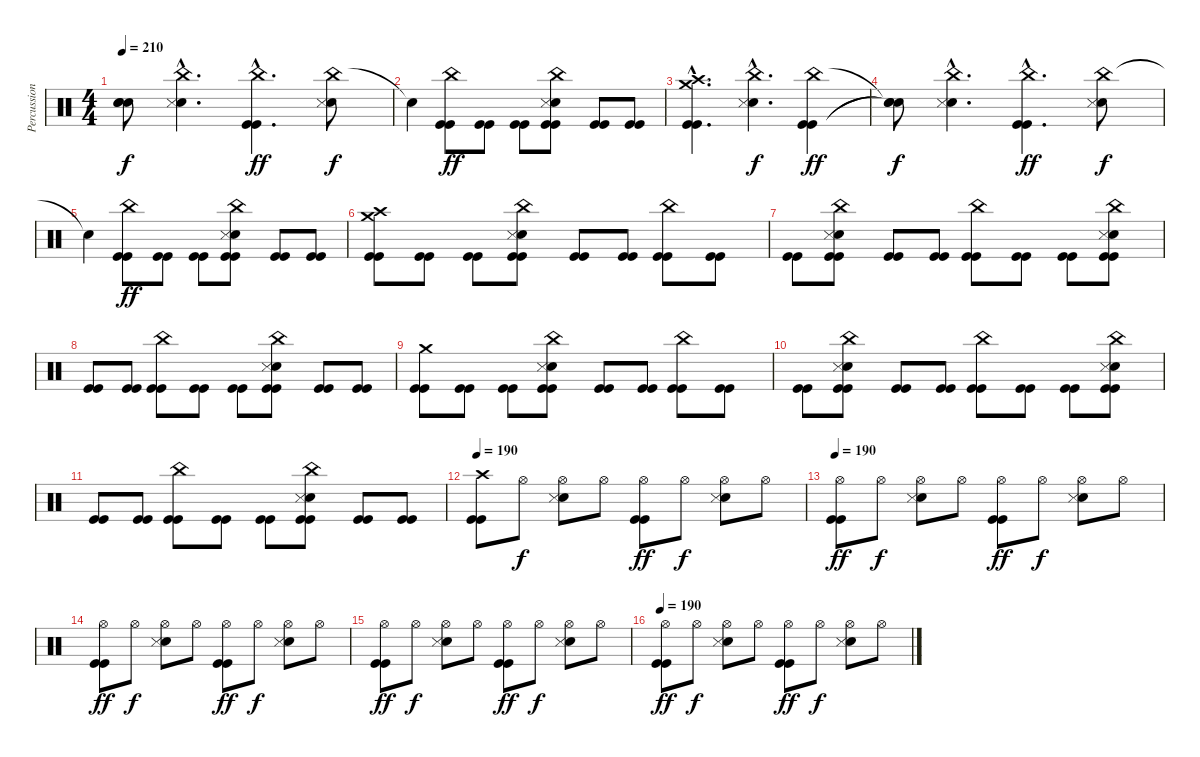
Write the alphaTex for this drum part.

\track ("Percussion" "Percussion") {instrument percussion}
\staff {score}
\articulation defaults
\ts (4 4)
\tempo 210
\clef neutral
\ks c
("Snare (hit)"{t} "Snare (hit)"{t} "Snare (hit)"{t}).8{dy f} ("China (hit)"{hac} "Electric Snare (hit)"{hac} "Snare (side stick) 3"{hac}).4{d} ("China (hit)"{hac} "Kick (hit)"{hac} "Kick (hit)"{hac}).4{d dy ff} ("China (hit)" "Electric Snare (hit)" "Snare (side stick) 3").8{dy f} |
"Snare (hit)"{t}.4 ("China (hit)" "Kick (hit)" "Kick (hit)").8{dy ff} ("Kick (hit)" "Kick (hit)").8 ("Kick (hit)" "Kick (hit)").8 ("China (hit)" "Electric Snare (hit)" "Snare (side stick) 3" "Kick (hit)" "Kick (hit)").8 ("Kick (hit)" "Kick (hit)").8 ("Kick (hit)" "Kick (hit)").8 |
("Crash medium (hit)"{hac} "Crash high (hit)"{hac} "Kick (hit)"{hac} "Kick (hit)"{hac}).4{d} ("China (hit)"{hac} "Electric Snare (hit)"{hac} "Snare (side stick) 3"{hac}).4{d dy f} ("China (hit)" "Kick (hit)" "Kick (hit)").4{dy ff} |
("Snare (hit)"{t} "Snare (hit)"{t} "Snare (hit)"{t}).8{dy f} ("China (hit)"{hac} "Electric Snare (hit)"{hac} "Snare (side stick) 3"{hac}).4{d} ("China (hit)"{hac} "Kick (hit)"{hac} "Kick (hit)"{hac}).4{d dy ff} ("China (hit)" "Electric Snare (hit)" "Snare (side stick) 3").8{dy f} |
"Snare (hit)"{t}.4 ("China (hit)" "Kick (hit)" "Kick (hit)").8{dy ff} ("Kick (hit)" "Kick (hit)").8 ("Kick (hit)" "Kick (hit)").8 ("China (hit)" "Electric Snare (hit)" "Snare (side stick) 3" "Kick (hit)" "Kick (hit)").8 ("Kick (hit)" "Kick (hit)").8 ("Kick (hit)" "Kick (hit)").8 |
("Crash medium (hit)" "Crash high (hit)" "Kick (hit)" "Kick (hit)").8 ("Kick (hit)" "Kick (hit)").8 ("Kick (hit)" "Kick (hit)").8 ("China (hit)" "Electric Snare (hit)" "Snare (side stick) 3" "Kick (hit)" "Kick (hit)").8 ("Kick (hit)" "Kick (hit)").8 ("Kick (hit)" "Kick (hit)").8 ("China (hit)" "Kick (hit)" "Kick (hit)").8 ("Kick (hit)" "Kick (hit)").8 |
("Kick (hit)" "Kick (hit)").8 ("China (hit)" "Electric Snare (hit)" "Snare (side stick) 3" "Kick (hit)" "Kick (hit)").8 ("Kick (hit)" "Kick (hit)").8 ("Kick (hit)" "Kick (hit)").8 ("China (hit)" "Kick (hit)" "Kick (hit)").8 ("Kick (hit)" "Kick (hit)").8 ("Kick (hit)" "Kick (hit)").8 ("China (hit)" "Electric Snare (hit)" "Snare (side stick) 3" "Kick (hit)" "Kick (hit)").8 |
("Kick (hit)" "Kick (hit)").8 ("Kick (hit)" "Kick (hit)").8 ("China (hit)" "Kick (hit)" "Kick (hit)").8 ("Kick (hit)" "Kick (hit)").8 ("Kick (hit)" "Kick (hit)").8 ("China (hit)" "Electric Snare (hit)" "Snare (side stick) 3" "Kick (hit)" "Kick (hit)").8 ("Kick (hit)" "Kick (hit)").8 ("Kick (hit)" "Kick (hit)").8 |
("Crash medium (hit)" "Kick (hit)" "Kick (hit)").8 ("Kick (hit)" "Kick (hit)").8 ("Kick (hit)" "Kick (hit)").8 ("China (hit)" "Electric Snare (hit)" "Snare (side stick) 3" "Kick (hit)" "Kick (hit)").8 ("Kick (hit)" "Kick (hit)").8 ("Kick (hit)" "Kick (hit)").8 ("China (hit)" "Kick (hit)" "Kick (hit)").8 ("Kick (hit)" "Kick (hit)").8 |
("Kick (hit)" "Kick (hit)").8 ("China (hit)" "Electric Snare (hit)" "Snare (side stick) 3" "Kick (hit)" "Kick (hit)").8 ("Kick (hit)" "Kick (hit)").8 ("Kick (hit)" "Kick (hit)").8 ("China (hit)" "Kick (hit)" "Kick (hit)").8 ("Kick (hit)" "Kick (hit)").8 ("Kick (hit)" "Kick (hit)").8 ("China (hit)" "Electric Snare (hit)" "Snare (side stick) 3" "Kick (hit)" "Kick (hit)").8 |
("Kick (hit)" "Kick (hit)").8 ("Kick (hit)" "Kick (hit)").8 ("China (hit)" "Kick (hit)" "Kick (hit)").8 ("Kick (hit)" "Kick (hit)").8 ("Kick (hit)" "Kick (hit)").8 ("China (hit)" "Electric Snare (hit)" "Snare (side stick) 3" "Kick (hit)" "Kick (hit)").8 ("Kick (hit)" "Kick (hit)").8 ("Kick (hit)" "Kick (hit)").8 |
\tempo 190
("Crash high (hit)" "Kick (hit)" "Kick (hit)").8 "Hi-Hat (open)".8{dy f} ("Hi-Hat (open)" "Electric Snare (hit)" "Snare (side stick) 3").8 "Hi-Hat (open)".8 ("Hi-Hat (open)" "Kick (hit)" "Kick (hit)").8{dy ff} "Hi-Hat (open)".8{dy f} ("Hi-Hat (open)" "Electric Snare (hit)" "Snare (side stick) 3").8 "Hi-Hat (open)".8 |
\tempo 190
("Hi-Hat (open)" "Kick (hit)" "Kick (hit)").8{dy ff} "Hi-Hat (open)".8{dy f} ("Hi-Hat (open)" "Electric Snare (hit)" "Snare (side stick) 3").8 "Hi-Hat (open)".8 ("Hi-Hat (open)" "Kick (hit)" "Kick (hit)").8{dy ff} "Hi-Hat (open)".8{dy f} ("Hi-Hat (open)" "Electric Snare (hit)" "Snare (side stick) 3").8 "Hi-Hat (open)".8 |
("Hi-Hat (open)" "Kick (hit)" "Kick (hit)").8{dy ff} "Hi-Hat (open)".8{dy f} ("Hi-Hat (open)" "Electric Snare (hit)" "Snare (side stick) 3").8 "Hi-Hat (open)".8 ("Hi-Hat (open)" "Kick (hit)" "Kick (hit)").8{dy ff} "Hi-Hat (open)".8{dy f} ("Hi-Hat (open)" "Electric Snare (hit)" "Snare (side stick) 3").8 "Hi-Hat (open)".8 |
("Hi-Hat (open)" "Kick (hit)" "Kick (hit)").8{dy ff} "Hi-Hat (open)".8{dy f} ("Hi-Hat (open)" "Electric Snare (hit)" "Snare (side stick) 3").8 "Hi-Hat (open)".8 ("Hi-Hat (open)" "Kick (hit)" "Kick (hit)").8{dy ff} "Hi-Hat (open)".8{dy f} ("Hi-Hat (open)" "Electric Snare (hit)" "Snare (side stick) 3").8 "Hi-Hat (open)".8 |
\tempo 190
("Hi-Hat (open)" "Kick (hit)" "Kick (hit)").8{dy ff} "Hi-Hat (open)".8{dy f} ("Hi-Hat (open)" "Electric Snare (hit)" "Snare (side stick) 3").8 "Hi-Hat (open)".8 ("Hi-Hat (open)" "Kick (hit)" "Kick (hit)").8{dy ff} "Hi-Hat (open)".8{dy f} ("Hi-Hat (open)" "Electric Snare (hit)" "Snare (side stick) 3").8 "Hi-Hat (open)".8
